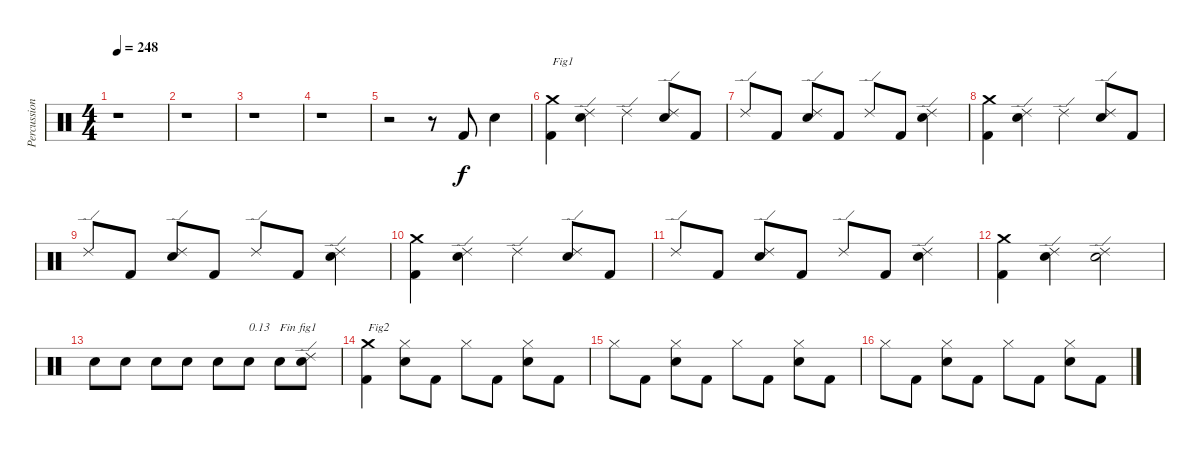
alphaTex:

\track ("Percussions" "Percussion") {instrument percussion}
\staff {score}
\articulation defaults
\ts (4 4)
\tempo 248
\clef neutral
\ks c
r.1{dy f} |
r.1 |
r.1 |
r.1 |
r.2 r.8 "Kick (hit) 2".8 "Electric Snare (hit)".4 |
("Kick (hit) 2" "Crash medium (hit)").4{txt "Fig1"} ("Electric Snare (hit)" "Ride (edge) 2").4 "Ride (edge) 2".4 ("Electric Snare (hit)" "Ride (edge) 2").8 "Kick (hit) 2".8 |
"Ride (edge) 2".8 "Kick (hit) 2".8 ("Electric Snare (hit)" "Ride (edge) 2").8 "Kick (hit) 2".8 "Ride (edge) 2".8 "Kick (hit) 2".8 ("Electric Snare (hit)" "Ride (edge) 2").4 |
("Kick (hit) 2" "Crash medium (hit)").4 ("Electric Snare (hit)" "Ride (edge) 2").4 "Ride (edge) 2".4 ("Electric Snare (hit)" "Ride (edge) 2").8 "Kick (hit) 2".8 |
"Ride (edge) 2".8 "Kick (hit) 2".8 ("Electric Snare (hit)" "Ride (edge) 2").8 "Kick (hit) 2".8 "Ride (edge) 2".8 "Kick (hit) 2".8 ("Electric Snare (hit)" "Ride (edge) 2").4 |
("Kick (hit) 2" "Crash medium (hit)").4 ("Electric Snare (hit)" "Ride (edge) 2").4 "Ride (edge) 2".4 ("Electric Snare (hit)" "Ride (edge) 2").8 "Kick (hit) 2".8 |
"Ride (edge) 2".8 "Kick (hit) 2".8 ("Electric Snare (hit)" "Ride (edge) 2").8 "Kick (hit) 2".8 "Ride (edge) 2".8 "Kick (hit) 2".8 ("Electric Snare (hit)" "Ride (edge) 2").4 |
("Kick (hit) 2" "Crash medium (hit)").4 ("Electric Snare (hit)" "Ride (edge) 2").4 ("Electric Snare (hit)" "Ride (edge) 2").2 |
"Electric Snare (hit)".8 "Electric Snare (hit)".8 "Electric Snare (hit)".8 "Electric Snare (hit)".8 "Electric Snare (hit)".8 "Electric Snare (hit)".8{txt "0.13"} "Electric Snare (hit)".8{txt "Fin fig1"} ("Electric Snare (hit)" "Ride (edge) 2").8 |
("Kick (hit) 2" "Crash medium (hit)").4{txt "Fig2"} ("Electric Snare (hit)" "Hi-Hat (closed)").8 "Kick (hit) 2".8 "Hi-Hat (closed)".8 "Kick (hit) 2".8 ("Electric Snare (hit)" "Hi-Hat (closed)").8 "Kick (hit) 2".8 |
"Hi-Hat (closed)".8 "Kick (hit) 2".8 ("Electric Snare (hit)" "Hi-Hat (closed)").8 "Kick (hit) 2".8 "Hi-Hat (closed)".8 "Kick (hit) 2".8 ("Electric Snare (hit)" "Hi-Hat (closed)").8 "Kick (hit) 2".8 |
"Hi-Hat (closed)".8 "Kick (hit) 2".8 ("Electric Snare (hit)" "Hi-Hat (closed)").8 "Kick (hit) 2".8 "Hi-Hat (closed)".8 "Kick (hit) 2".8 ("Electric Snare (hit)" "Hi-Hat (closed)").8 "Kick (hit) 2".8
